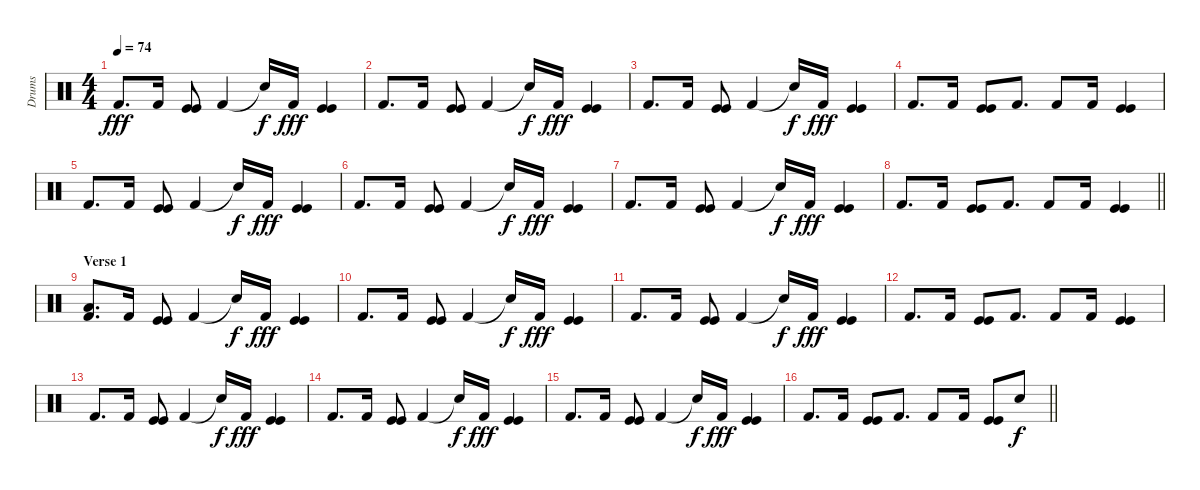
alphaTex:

\track ("Drums" "Drums") {instrument percussion}
\staff {score}
\articulation defaults
\ts (4 4)
\tempo 74
\clef neutral
\ks c "Kick (hit) 2".8{d dy fff} "Kick (hit) 2".16
("Kick (hit)" "Kick (hit)").8 "Kick (hit) 2".4 "Snare (hit)"{t}.16{dy f} "Kick (hit) 2".16{dy fff} ("Kick (hit)" "Kick (hit)").4 |
"Kick (hit) 2".8{d} "Kick (hit) 2".16 ("Kick (hit)" "Kick (hit)").8 "Kick (hit) 2".4 "Snare (hit)"{t}.16{dy f} "Kick (hit) 2".16{dy fff} ("Kick (hit)" "Kick (hit)").4 |
"Kick (hit) 2".8{d} "Kick (hit) 2".16 ("Kick (hit)" "Kick (hit)").8 "Kick (hit) 2".4 "Snare (hit)"{t}.16{dy f} "Kick (hit) 2".16{dy fff} ("Kick (hit)" "Kick (hit)").4 |
"Kick (hit) 2".8{d} "Kick (hit) 2".16 ("Kick (hit)" "Kick (hit)").8 "Kick (hit) 2".8{d} "Kick (hit) 2".8 "Kick (hit) 2".16 ("Kick (hit)" "Kick (hit)").4 |
"Kick (hit) 2".8{d} "Kick (hit) 2".16 ("Kick (hit)" "Kick (hit)").8 "Kick (hit) 2".4 "Snare (hit)"{t}.16{dy f} "Kick (hit) 2".16{dy fff} ("Kick (hit)" "Kick (hit)").4 |
"Kick (hit) 2".8{d} "Kick (hit) 2".16 ("Kick (hit)" "Kick (hit)").8 "Kick (hit) 2".4 "Snare (hit)"{t}.16{dy f} "Kick (hit) 2".16{dy fff} ("Kick (hit)" "Kick (hit)").4 |
"Kick (hit) 2".8{d} "Kick (hit) 2".16 ("Kick (hit)" "Kick (hit)").8 "Kick (hit) 2".4 "Snare (hit)"{t}.16{dy f} "Kick (hit) 2".16{dy fff} ("Kick (hit)" "Kick (hit)").4 |
\barLineRight lightlight "Kick (hit) 2".8{d} "Kick (hit) 2".16
("Kick (hit)" "Kick (hit)").8 "Kick (hit) 2".8{d} "Kick (hit) 2".8 "Kick (hit) 2".16 ("Kick (hit)" "Kick (hit)").4 |
\section ("" "Verse 1")
("Low Floor Tom (hit)" "Kick (hit) 2").8{d} "Kick (hit) 2".16 ("Kick (hit)" "Kick (hit)").8 "Kick (hit) 2".4 "Snare (hit)"{t}.16{dy f} "Kick (hit) 2".16{dy fff} ("Kick (hit)" "Kick (hit)").4 |
"Kick (hit) 2".8{d} "Kick (hit) 2".16 ("Kick (hit)" "Kick (hit)").8 "Kick (hit) 2".4 "Snare (hit)"{t}.16{dy f} "Kick (hit) 2".16{dy fff} ("Kick (hit)" "Kick (hit)").4 |
"Kick (hit) 2".8{d} "Kick (hit) 2".16 ("Kick (hit)" "Kick (hit)").8 "Kick (hit) 2".4 "Snare (hit)"{t}.16{dy f} "Kick (hit) 2".16{dy fff} ("Kick (hit)" "Kick (hit)").4 |
"Kick (hit) 2".8{d} "Kick (hit) 2".16 ("Kick (hit)" "Kick (hit)").8 "Kick (hit) 2".8{d} "Kick (hit) 2".8 "Kick (hit) 2".16 ("Kick (hit)" "Kick (hit)").4 |
"Kick (hit) 2".8{d} "Kick (hit) 2".16 ("Kick (hit)" "Kick (hit)").8 "Kick (hit) 2".4 "Snare (hit)"{t}.16{dy f} "Kick (hit) 2".16{dy fff} ("Kick (hit)" "Kick (hit)").4 |
"Kick (hit) 2".8{d} "Kick (hit) 2".16 ("Kick (hit)" "Kick (hit)").8 "Kick (hit) 2".4 "Snare (hit)"{t}.16{dy f} "Kick (hit) 2".16{dy fff} ("Kick (hit)" "Kick (hit)").4 |
"Kick (hit) 2".8{d} "Kick (hit) 2".16 ("Kick (hit)" "Kick (hit)").8 "Kick (hit) 2".4 "Snare (hit)"{t}.16{dy f} "Kick (hit) 2".16{dy fff} ("Kick (hit)" "Kick (hit)").4 |
\barLineRight lightlight "Kick (hit) 2".8{d} "Kick (hit) 2".16
("Kick (hit)" "Kick (hit)").8 "Kick (hit) 2".8{d} "Kick (hit) 2".8 "Kick (hit) 2".16 ("Kick (hit)" "Kick (hit)").8 "Electric Snare (hit)".8{dy f}
